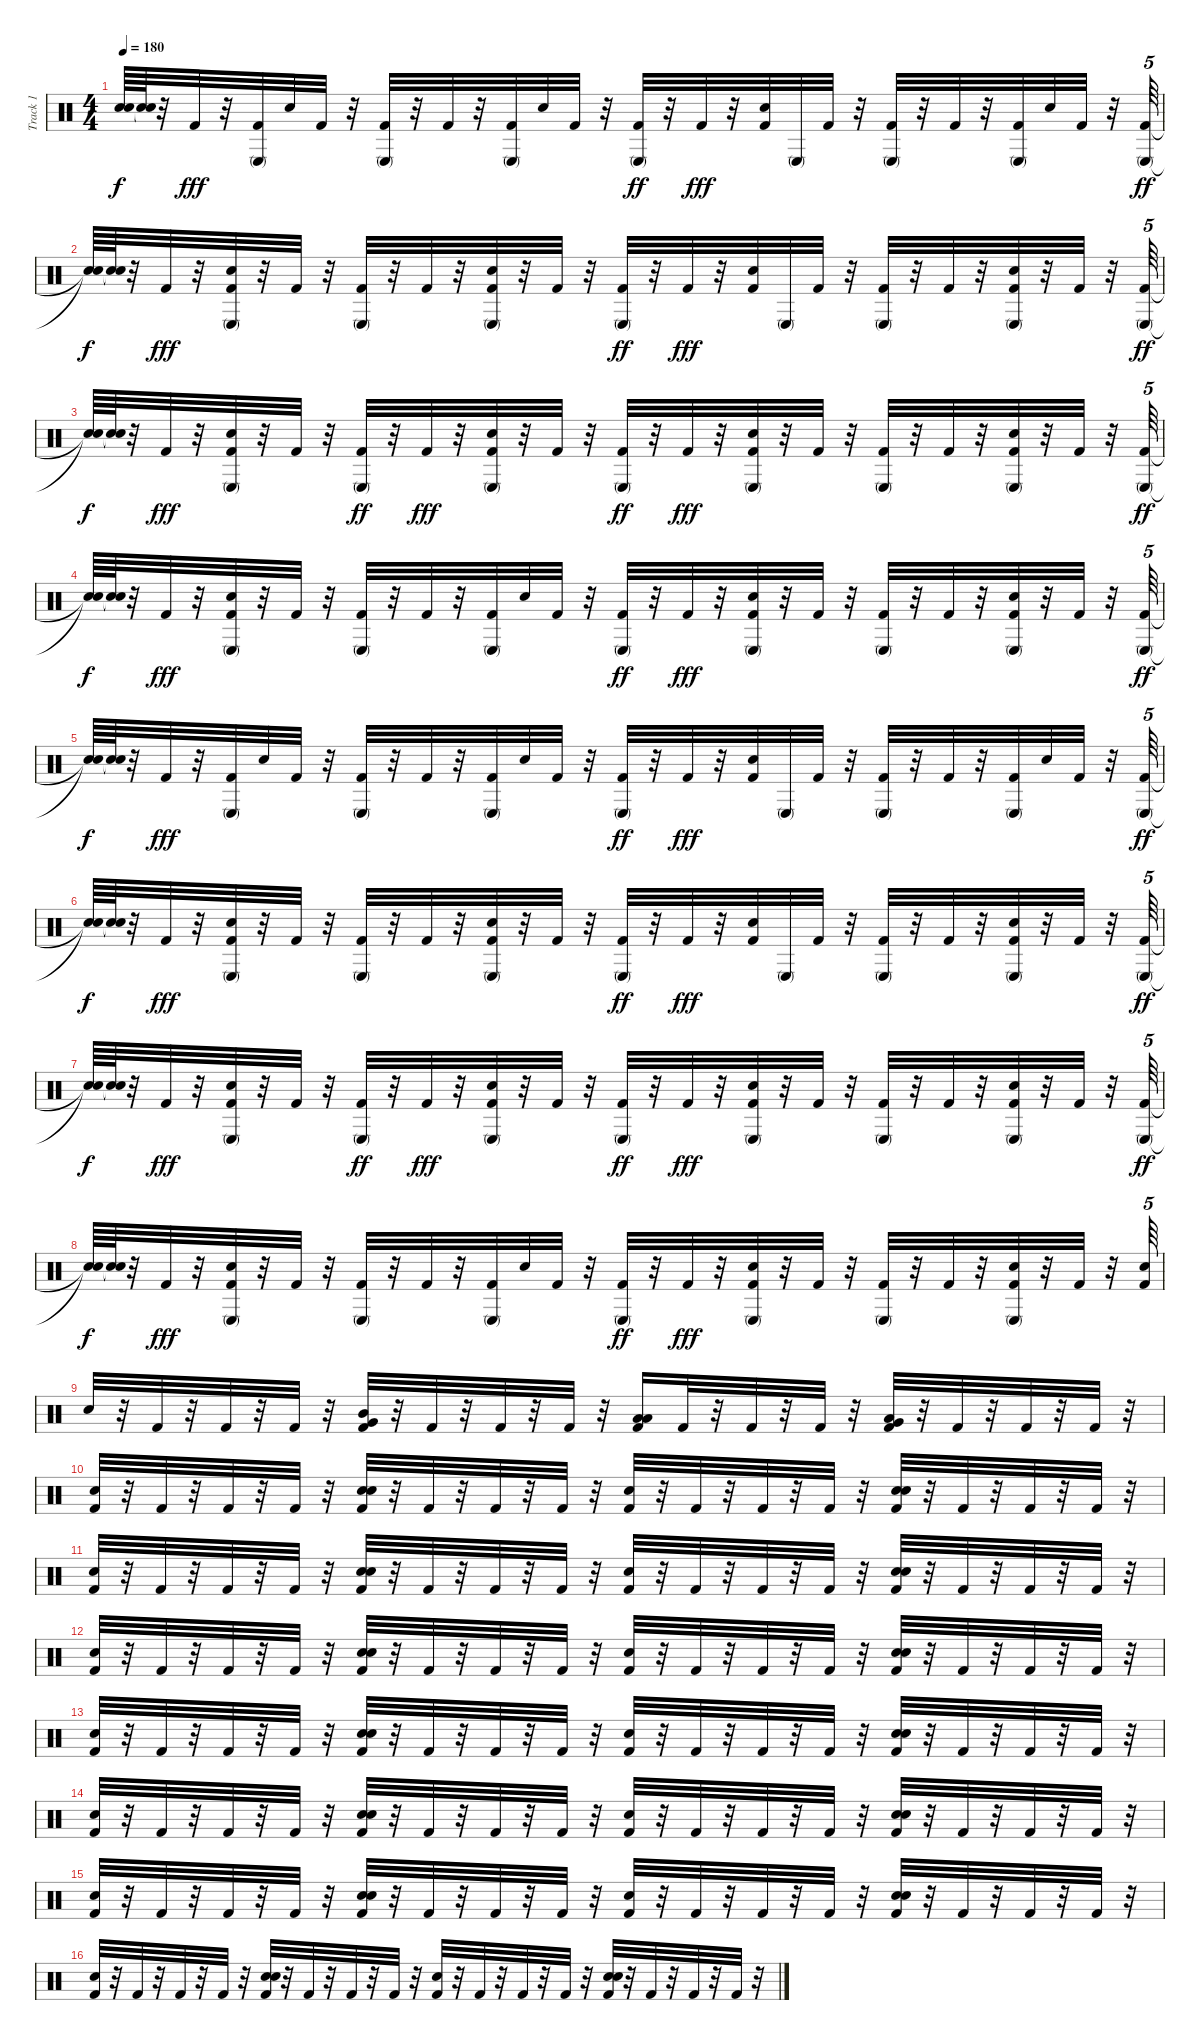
\track ("Track 1" "Track 1") {mute instrument percussion}
\staff {score}
\articulation defaults
\ts (4 4)
\tempo 180
\clef neutral
\ks c
("Snare (hit)"{t} "Snare (hit)"{t}).64{dy f} ("Snare (hit)"{t} "Snare (hit)"{t}).64 r.32 "Kick (hit) 2".32{dy fff} r.32 ("Kick (hit) 2" "Conga low (mute)").32 "Snare (hit) 2".32 "Kick (hit) 2".32 r.32 ("Conga low (mute)" "Kick (hit) 2").32 r.32 "Kick (hit) 2".32 r.32 ("Kick (hit) 2" "Conga low (mute)").32 "Snare (hit) 2".32 "Kick (hit) 2".32 r.32 ("Kick (hit) 2" "Conga low (mute)").32{dy ff} r.32 "Kick (hit) 2".32{dy fff} r.32 ("Kick (hit) 2" "Snare (hit) 2").32 "Conga low (mute)".32 "Kick (hit) 2".32 r.32 ("Conga low (mute)" "Kick (hit) 2").32 r.32 "Kick (hit) 2".32 r.32 ("Kick (hit) 2" "Conga low (mute)").32 "Snare (hit) 2".32 "Kick (hit) 2".32 r.32 ("Kick (hit) 2" "Conga low (mute)").64{tu (5 4) dy ff} |
("Snare (hit)"{t} "Snare (hit)"{t}).64{dy f} ("Snare (hit)"{t} "Snare (hit)"{t}).64 r.32 "Kick (hit) 2".32{dy fff} r.32 ("Kick (hit) 2" "Snare (hit) 2" "Conga low (mute)").32 r.32 "Kick (hit) 2".32 r.32 ("Conga low (mute)" "Kick (hit) 2").32 r.32 "Kick (hit) 2".32 r.32 ("Kick (hit) 2" "Conga low (mute)" "Snare (hit) 2").32 r.32 "Kick (hit) 2".32 r.32 ("Kick (hit) 2" "Conga low (mute)").32{dy ff} r.32 "Kick (hit) 2".32{dy fff} r.32 ("Kick (hit) 2" "Snare (hit) 2").32 "Conga low (mute)".32 "Kick (hit) 2".32 r.32 ("Conga low (mute)" "Kick (hit) 2").32 r.32 "Kick (hit) 2".32 r.32 ("Kick (hit) 2" "Snare (hit) 2" "Conga low (mute)").32 r.32 "Kick (hit) 2".32 r.32 ("Kick (hit) 2" "Conga low (mute)").64{tu (5 4) dy ff} |
("Snare (hit)"{t} "Snare (hit)"{t}).64{dy f} ("Snare (hit)"{t} "Snare (hit)"{t}).64 r.32 "Kick (hit) 2".32{dy fff} r.32 ("Kick (hit) 2" "Snare (hit) 2" "Conga low (mute)").32 r.32 "Kick (hit) 2".32 r.32 ("Kick (hit) 2" "Conga low (mute)").32{dy ff} r.32 "Kick (hit) 2".32{dy fff} r.32 ("Kick (hit) 2" "Snare (hit) 2" "Conga low (mute)").32 r.32 "Kick (hit) 2".32 r.32 ("Kick (hit) 2" "Conga low (mute)").32{dy ff} r.32 "Kick (hit) 2".32{dy fff} r.32 ("Snare (hit) 2" "Kick (hit) 2" "Conga low (mute)").32 r.32 "Kick (hit) 2".32 r.32 ("Conga low (mute)" "Kick (hit) 2").32 r.32 "Kick (hit) 2".32 r.32 ("Kick (hit) 2" "Snare (hit) 2" "Conga low (mute)").32 r.32 "Kick (hit) 2".32 r.32 ("Kick (hit) 2" "Conga low (mute)").64{tu (5 4) dy ff} |
("Snare (hit)"{t} "Snare (hit)"{t}).64{dy f} ("Snare (hit)"{t} "Snare (hit)"{t}).64 r.32 "Kick (hit) 2".32{dy fff} r.32 ("Kick (hit) 2" "Conga low (mute)" "Snare (hit) 2").32 r.32 "Kick (hit) 2".32 r.32 ("Conga low (mute)" "Kick (hit) 2").32 r.32 "Kick (hit) 2".32 r.32 ("Kick (hit) 2" "Conga low (mute)").32 "Snare (hit) 2".32 "Kick (hit) 2".32 r.32 ("Kick (hit) 2" "Conga low (mute)").32{dy ff} r.32 "Kick (hit) 2".32{dy fff} r.32 ("Kick (hit) 2" "Snare (hit) 2" "Conga low (mute)").32 r.32 "Kick (hit) 2".32 r.32 ("Conga low (mute)" "Kick (hit) 2").32 r.32 "Kick (hit) 2".32 r.32 ("Kick (hit) 2" "Conga low (mute)" "Snare (hit) 2").32 r.32 "Kick (hit) 2".32 r.32 ("Kick (hit) 2" "Conga low (mute)").64{tu (5 4) dy ff} |
("Snare (hit)"{t} "Snare (hit)"{t}).64{dy f} ("Snare (hit)"{t} "Snare (hit)"{t}).64 r.32 "Kick (hit) 2".32{dy fff} r.32 ("Kick (hit) 2" "Conga low (mute)").32 "Snare (hit) 2".32 "Kick (hit) 2".32 r.32 ("Conga low (mute)" "Kick (hit) 2").32 r.32 "Kick (hit) 2".32 r.32 ("Kick (hit) 2" "Conga low (mute)").32 "Snare (hit) 2".32 "Kick (hit) 2".32 r.32 ("Kick (hit) 2" "Conga low (mute)").32{dy ff} r.32 "Kick (hit) 2".32{dy fff} r.32 ("Kick (hit) 2" "Snare (hit) 2").32 "Conga low (mute)".32 "Kick (hit) 2".32 r.32 ("Conga low (mute)" "Kick (hit) 2").32 r.32 "Kick (hit) 2".32 r.32 ("Kick (hit) 2" "Conga low (mute)").32 "Snare (hit) 2".32 "Kick (hit) 2".32 r.32 ("Kick (hit) 2" "Conga low (mute)").64{tu (5 4) dy ff} |
("Snare (hit)"{t} "Snare (hit)"{t}).64{dy f} ("Snare (hit)"{t} "Snare (hit)"{t}).64 r.32 "Kick (hit) 2".32{dy fff} r.32 ("Kick (hit) 2" "Snare (hit) 2" "Conga low (mute)").32 r.32 "Kick (hit) 2".32 r.32 ("Conga low (mute)" "Kick (hit) 2").32 r.32 "Kick (hit) 2".32 r.32 ("Kick (hit) 2" "Conga low (mute)" "Snare (hit) 2").32 r.32 "Kick (hit) 2".32 r.32 ("Kick (hit) 2" "Conga low (mute)").32{dy ff} r.32 "Kick (hit) 2".32{dy fff} r.32 ("Kick (hit) 2" "Snare (hit) 2").32 "Conga low (mute)".32 "Kick (hit) 2".32 r.32 ("Conga low (mute)" "Kick (hit) 2").32 r.32 "Kick (hit) 2".32 r.32 ("Kick (hit) 2" "Snare (hit) 2" "Conga low (mute)").32 r.32 "Kick (hit) 2".32 r.32 ("Kick (hit) 2" "Conga low (mute)").64{tu (5 4) dy ff} |
("Snare (hit)"{t} "Snare (hit)"{t}).64{dy f} ("Snare (hit)"{t} "Snare (hit)"{t}).64 r.32 "Kick (hit) 2".32{dy fff} r.32 ("Kick (hit) 2" "Snare (hit) 2" "Conga low (mute)").32 r.32 "Kick (hit) 2".32 r.32 ("Kick (hit) 2" "Conga low (mute)").32{dy ff} r.32 "Kick (hit) 2".32{dy fff} r.32 ("Kick (hit) 2" "Snare (hit) 2" "Conga low (mute)").32 r.32 "Kick (hit) 2".32 r.32 ("Kick (hit) 2" "Conga low (mute)").32{dy ff} r.32 "Kick (hit) 2".32{dy fff} r.32 ("Snare (hit) 2" "Kick (hit) 2" "Conga low (mute)").32 r.32 "Kick (hit) 2".32 r.32 ("Conga low (mute)" "Kick (hit) 2").32 r.32 "Kick (hit) 2".32 r.32 ("Kick (hit) 2" "Snare (hit) 2" "Conga low (mute)").32 r.32 "Kick (hit) 2".32 r.32 ("Kick (hit) 2" "Conga low (mute)").64{tu (5 4) dy ff} |
("Snare (hit)"{t} "Snare (hit)"{t}).64{dy f} ("Snare (hit)"{t} "Snare (hit)"{t}).64 r.32 "Kick (hit) 2".32{dy fff} r.32 ("Kick (hit) 2" "Conga low (mute)" "Snare (hit) 2").32 r.32 "Kick (hit) 2".32 r.32 ("Conga low (mute)" "Kick (hit) 2").32 r.32 "Kick (hit) 2".32 r.32 ("Kick (hit) 2" "Conga low (mute)").32 "Snare (hit) 2".32 "Kick (hit) 2".32 r.32 ("Kick (hit) 2" "Conga low (mute)").32{dy ff} r.32 "Kick (hit) 2".32{dy fff} r.32 ("Kick (hit) 2" "Snare (hit) 2" "Conga low (mute)").32 r.32 "Kick (hit) 2".32 r.32 ("Conga low (mute)" "Kick (hit) 2").32 r.32 "Kick (hit) 2".32 r.32 ("Kick (hit) 2" "Conga low (mute)" "Snare (hit) 2").32 r.32 "Kick (hit) 2".32 r.32 ("Kick (hit) 2" "Snare (hit) 2").64{tu (5 4)} |
"Snare (hit) 2".32 r.32 "Kick (hit) 2".32 r.32 "Kick (hit) 2".32 r.32 "Kick (hit) 2".32 r.32 ("Mid Tom (hit)" "Kick (hit) 2" "Very Low Tom (hit)").32 r.32 "Kick (hit) 2".32 r.32 "Kick (hit) 2".32 r.32 "Kick (hit) 2".32 r.32 ("Low Tom (hit)" "Kick (hit) 2" "Low Tom (hit)").16 "Kick (hit) 2".32 r.32 "Kick (hit) 2".32 r.32 "Kick (hit) 2".32 r.32 ("Kick (hit) 2" "Very Low Tom (hit)" "Low Floor Tom (hit)").32 r.32 "Kick (hit) 2".32 r.32 "Kick (hit) 2".32 r.32 "Kick (hit) 2".32 r.32 |
("Kick (hit) 2" "Snare (hit)").32 r.32 "Kick (hit) 2".32 r.32 "Kick (hit) 2".32 r.32 "Kick (hit) 2".32 r.32 ("Snare (hit)" "Kick (hit) 2" "Snare (hit) 2").32 r.32 "Kick (hit) 2".32 r.32 "Kick (hit) 2".32 r.32 "Kick (hit) 2".32 r.32 ("Kick (hit) 2" "Snare (hit)").32 r.32 "Kick (hit) 2".32 r.32 "Kick (hit) 2".32 r.32 "Kick (hit) 2".32 r.32 ("Snare (hit)" "Kick (hit) 2" "Snare (hit) 2").32 r.32 "Kick (hit) 2".32 r.32 "Kick (hit) 2".32 r.32 "Kick (hit) 2".32 r.32 |
("Kick (hit) 2" "Snare (hit)").32 r.32 "Kick (hit) 2".32 r.32 "Kick (hit) 2".32 r.32 "Kick (hit) 2".32 r.32 ("Snare (hit)" "Kick (hit) 2" "Snare (hit) 2").32 r.32 "Kick (hit) 2".32 r.32 "Kick (hit) 2".32 r.32 "Kick (hit) 2".32 r.32 ("Kick (hit) 2" "Snare (hit)").32 r.32 "Kick (hit) 2".32 r.32 "Kick (hit) 2".32 r.32 "Kick (hit) 2".32 r.32 ("Snare (hit) 2" "Snare (hit)" "Kick (hit) 2").32 r.32 "Kick (hit) 2".32 r.32 "Kick (hit) 2".32 r.32 "Kick (hit) 2".32 r.32 |
("Kick (hit) 2" "Snare (hit)").32 r.32 "Kick (hit) 2".32 r.32 "Kick (hit) 2".32 r.32 "Kick (hit) 2".32 r.32 ("Snare (hit)" "Snare (hit) 2" "Kick (hit) 2").32 r.32 "Kick (hit) 2".32 r.32 "Kick (hit) 2".32 r.32 "Kick (hit) 2".32 r.32 ("Kick (hit) 2" "Snare (hit)").32 r.32 "Kick (hit) 2".32 r.32 "Kick (hit) 2".32 r.32 "Kick (hit) 2".32 r.32 ("Snare (hit) 2" "Snare (hit)" "Kick (hit) 2").32 r.32 "Kick (hit) 2".32 r.32 "Kick (hit) 2".32 r.32 "Kick (hit) 2".32 r.32 |
("Kick (hit) 2" "Snare (hit)").32 r.32 "Kick (hit) 2".32 r.32 "Kick (hit) 2".32 r.32 "Kick (hit) 2".32 r.32 ("Snare (hit)" "Kick (hit) 2" "Snare (hit) 2").32 r.32 "Kick (hit) 2".32 r.32 "Kick (hit) 2".32 r.32 "Kick (hit) 2".32 r.32 ("Kick (hit) 2" "Snare (hit)").32 r.32 "Kick (hit) 2".32 r.32 "Kick (hit) 2".32 r.32 "Kick (hit) 2".32 r.32 ("Snare (hit)" "Snare (hit) 2" "Kick (hit) 2").32 r.32 "Kick (hit) 2".32 r.32 "Kick (hit) 2".32 r.32 "Kick (hit) 2".32 r.32 |
("Kick (hit) 2" "Snare (hit)").32 r.32 "Kick (hit) 2".32 r.32 "Kick (hit) 2".32 r.32 "Kick (hit) 2".32 r.32 ("Snare (hit)" "Kick (hit) 2" "Snare (hit) 2").32 r.32 "Kick (hit) 2".32 r.32 "Kick (hit) 2".32 r.32 "Kick (hit) 2".32 r.32 ("Kick (hit) 2" "Snare (hit)").32 r.32 "Kick (hit) 2".32 r.32 "Kick (hit) 2".32 r.32 "Kick (hit) 2".32 r.32 ("Snare (hit)" "Kick (hit) 2" "Snare (hit) 2").32 r.32 "Kick (hit) 2".32 r.32 "Kick (hit) 2".32 r.32 "Kick (hit) 2".32 r.32 |
("Kick (hit) 2" "Snare (hit)").32 r.32 "Kick (hit) 2".32 r.32 "Kick (hit) 2".32 r.32 "Kick (hit) 2".32 r.32 ("Snare (hit)" "Kick (hit) 2" "Snare (hit) 2").32 r.32 "Kick (hit) 2".32 r.32 "Kick (hit) 2".32 r.32 "Kick (hit) 2".32 r.32 ("Kick (hit) 2" "Snare (hit)").32 r.32 "Kick (hit) 2".32 r.32 "Kick (hit) 2".32 r.32 "Kick (hit) 2".32 r.32 ("Snare (hit) 2" "Snare (hit)" "Kick (hit) 2").32 r.32 "Kick (hit) 2".32 r.32 "Kick (hit) 2".32 r.32 "Kick (hit) 2".32 r.32 |
("Kick (hit) 2" "Snare (hit)").32 r.32 "Kick (hit) 2".32 r.32 "Kick (hit) 2".32 r.32 "Kick (hit) 2".32 r.32 ("Snare (hit)" "Snare (hit) 2" "Kick (hit) 2").32 r.32 "Kick (hit) 2".32 r.32 "Kick (hit) 2".32 r.32 "Kick (hit) 2".32 r.32 ("Kick (hit) 2" "Snare (hit)").32 r.32 "Kick (hit) 2".32 r.32 "Kick (hit) 2".32 r.32 "Kick (hit) 2".32 r.32 ("Snare (hit) 2" "Snare (hit)" "Kick (hit) 2").32 r.32 "Kick (hit) 2".32 r.32 "Kick (hit) 2".32 r.32 "Kick (hit) 2".32 r.32
